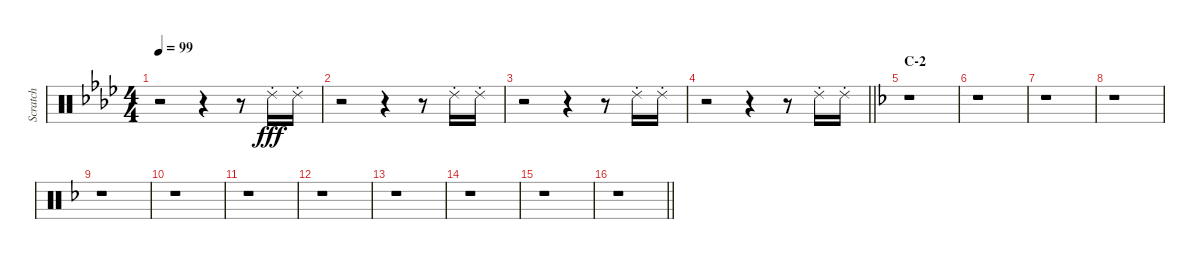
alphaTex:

\track ("Scratch" "Scratch") {instrument percussion}
\staff {score}
\articulation defaults
\ts (4 4)
\tempo 99
\clef neutral
\ks ab
r.2{dy fff} r.4 r.8 "Ride (choke) 2".16 "Ride (choke) 2".16 |
r.2 r.4 r.8 "Ride (choke) 2".16 "Ride (choke) 2".16 |
r.2 r.4 r.8 "Ride (choke) 2".16 "Ride (choke) 2".16 |
\barLineRight lightlight
r.2 r.4 r.8 "Ride (choke) 2".16 "Ride (choke) 2".16 |
\section ("" "C-2")
\ks f
r.1 |
r.1 |
r.1 |
r.1 |
r.1 |
r.1 |
r.1 |
r.1 |
r.1 |
r.1 |
r.1 |
\barLineRight lightlight
r.1
